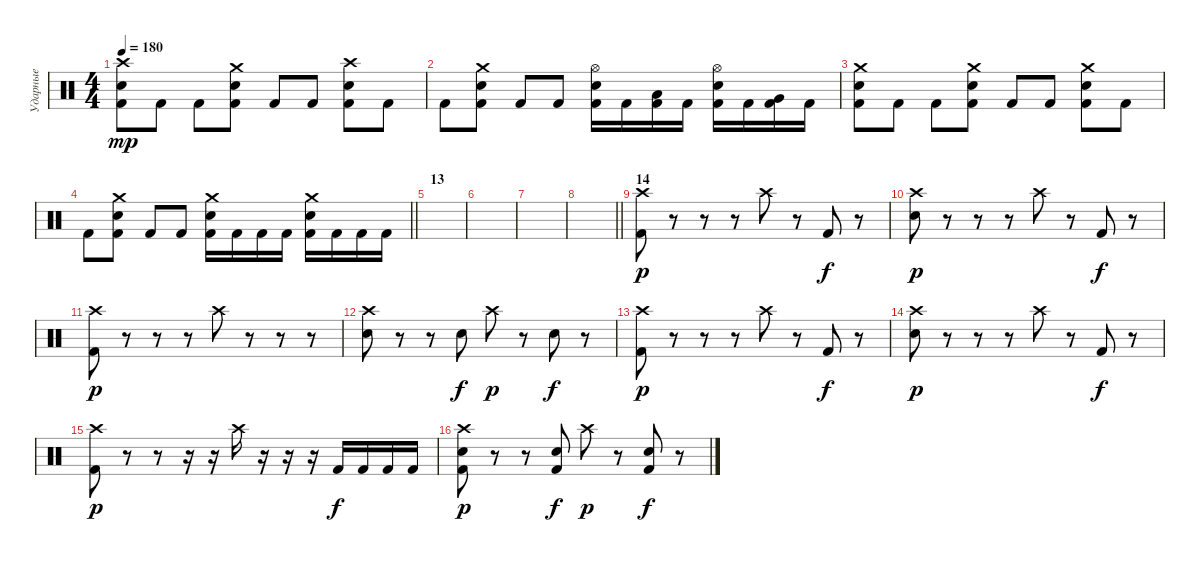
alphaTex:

\track ("Ударные" "Ударные") {instrument percussion}
\staff {score}
\articulation defaults
\ts (4 4)
\tempo 180
\clef neutral
\ks c
("Crash high (hit)" "Snare (hit) 2" "Kick (hit) 2").8{dy mp} "Kick (hit) 2".8 "Kick (hit) 2".8 ("Crash medium (hit)" "Snare (hit) 2" "Kick (hit) 2").8 "Kick (hit) 2".8 "Kick (hit) 2".8 ("Crash high (hit)" "Snare (hit) 2" "Kick (hit) 2").8 "Kick (hit) 2".8 |
"Kick (hit) 2".8 ("Crash medium (hit)" "Snare (hit) 2" "Kick (hit) 2").8 "Kick (hit) 2".8 "Kick (hit) 2".8 ("Hi-Hat (open)" "Snare (hit) 2" "Kick (hit) 2").16 "Kick (hit) 2".16 ("Low Tom (hit)" "Kick (hit) 2").16 "Kick (hit) 2".16 ("Hi-Hat (open)" "Snare (hit) 2" "Kick (hit) 2").16 "Kick (hit) 2".16 ("Very Low Tom (hit)" "Kick (hit) 2").16 "Kick (hit) 2".16 |
("Crash medium (hit)" "Snare (hit) 2" "Kick (hit) 2").8 "Kick (hit) 2".8 "Kick (hit) 2".8 ("Crash medium (hit)" "Snare (hit) 2" "Kick (hit) 2").8 "Kick (hit) 2".8 "Kick (hit) 2".8 ("Crash medium (hit)" "Snare (hit) 2" "Kick (hit) 2").8 "Kick (hit) 2".8 |
\barLineRight lightlight "Kick (hit) 2".8
("Crash medium (hit)" "Snare (hit) 2" "Kick (hit) 2").8 "Kick (hit) 2".8 "Kick (hit) 2".8 ("Crash medium (hit)" "Snare (hit) 2" "Kick (hit) 2").16 "Kick (hit) 2".16 "Kick (hit) 2".16 "Kick (hit) 2".16 ("Crash medium (hit)" "Snare (hit) 2" "Kick (hit) 2").16 "Kick (hit) 2".16 "Kick (hit) 2".16 "Kick (hit) 2".16 |
\section ("" "13")
|
|
|
\barLineRight lightlight
|
\section ("" "14")
("Crash high (hit)" "Kick (hit) 2").8{dy p} r.8 r.8 r.8 "Crash high (hit)".8 r.8 "Kick (hit) 2".8{dy f} r.8 |
("Crash high (hit)" "Snare (hit) 2").8{dy p} r.8 r.8 r.8 "Crash high (hit)".8 r.8 "Kick (hit) 2".8{dy f} r.8 |
("Crash high (hit)" "Kick (hit) 2").8{dy p} r.8 r.8 r.8 "Crash high (hit)".8 r.8 r.8 r.8 |
("Crash high (hit)" "Snare (hit) 2").8 r.8 r.8 "Snare (hit) 2".8{dy f} "Crash high (hit)".8{dy p} r.8 "Snare (hit) 2".8{dy f} r.8 |
("Crash high (hit)" "Kick (hit) 2").8{dy p} r.8 r.8 r.8 "Crash high (hit)".8 r.8 "Kick (hit) 2".8{dy f} r.8 |
("Crash high (hit)" "Snare (hit) 2").8{dy p} r.8 r.8 r.8 "Crash high (hit)".8 r.8 "Kick (hit) 2".8{dy f} r.8 |
("Crash high (hit)" "Kick (hit) 2").8{dy p} r.8 r.8 r.16 r.16 "Crash high (hit)".16 r.16 r.16 r.16 "Kick (hit) 2".16{dy f} "Kick (hit) 2".16 "Kick (hit) 2".16 "Kick (hit) 2".16 |
("Crash high (hit)" "Snare (hit) 2" "Kick (hit) 2").8{dy p} r.8 r.8 ("Snare (hit) 2" "Kick (hit) 2").8{dy f} "Crash high (hit)".8{dy p} r.8 ("Snare (hit) 2" "Kick (hit) 2").8{dy f} r.8
